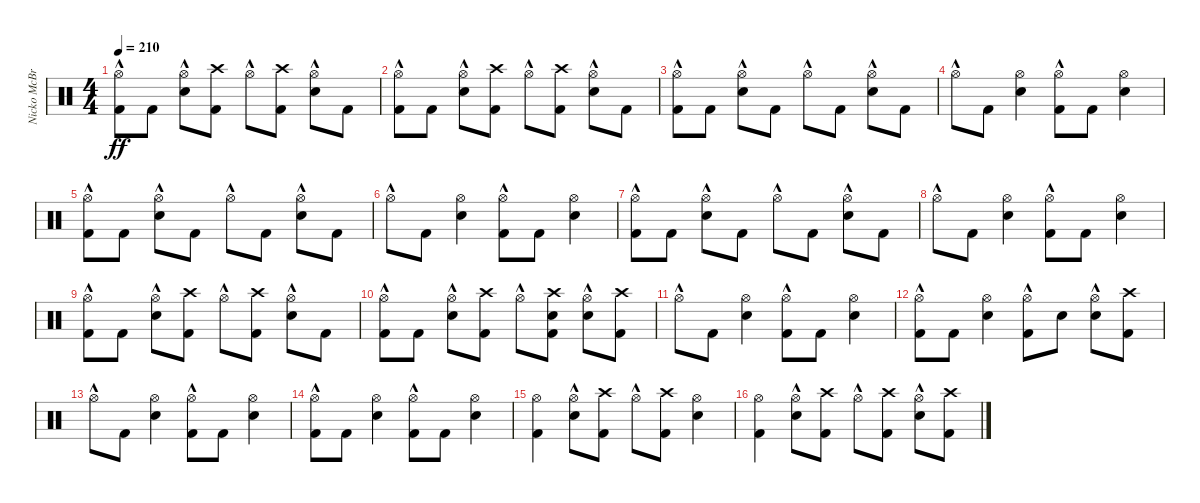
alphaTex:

\track ("Nicko McBrain" "Nicko McBr") {instrument percussion}
\staff {score}
\articulation defaults
\ts (4 4)
\tempo 210
\clef neutral
\ks c
("Kick (hit) 2" "Hi-Hat (open)"{hac}).8{dy ff} "Kick (hit) 2".8 ("Snare (hit) 2" "Hi-Hat (open)"{hac}).8 ("Kick (hit) 2" "Crash high (hit)").8 "Hi-Hat (open)"{hac}.8 ("Kick (hit) 2" "Crash high (hit)").8 ("Snare (hit) 2" "Hi-Hat (open)"{hac}).8 "Kick (hit) 2".8 |
("Kick (hit) 2" "Hi-Hat (open)"{hac}).8 "Kick (hit) 2".8 ("Snare (hit) 2" "Hi-Hat (open)"{hac}).8 ("Kick (hit) 2" "Crash high (hit)").8 "Hi-Hat (open)"{hac}.8 ("Kick (hit) 2" "Crash high (hit)").8 ("Snare (hit) 2" "Hi-Hat (open)"{hac}).8 "Kick (hit) 2".8 |
("Kick (hit) 2" "Hi-Hat (open)"{hac}).8 "Kick (hit) 2".8 ("Snare (hit) 2" "Hi-Hat (open)"{hac}).8 "Kick (hit) 2".8 "Hi-Hat (open)"{hac}.8 "Kick (hit) 2".8 ("Snare (hit) 2" "Hi-Hat (open)"{hac}).8 "Kick (hit) 2".8 |
"Hi-Hat (open)"{hac}.8 "Kick (hit) 2".8 ("Snare (hit) 2" "Hi-Hat (open)").4 ("Kick (hit) 2" "Hi-Hat (open)"{hac}).8 "Kick (hit) 2".8 ("Snare (hit) 2" "Hi-Hat (open)").4 |
("Kick (hit) 2" "Hi-Hat (open)"{hac}).8 "Kick (hit) 2".8 ("Snare (hit) 2" "Hi-Hat (open)"{hac}).8 "Kick (hit) 2".8 "Hi-Hat (open)"{hac}.8 "Kick (hit) 2".8 ("Snare (hit) 2" "Hi-Hat (open)"{hac}).8 "Kick (hit) 2".8 |
"Hi-Hat (open)"{hac}.8 "Kick (hit) 2".8 ("Snare (hit) 2" "Hi-Hat (open)").4 ("Kick (hit) 2" "Hi-Hat (open)"{hac}).8 "Kick (hit) 2".8 ("Snare (hit) 2" "Hi-Hat (open)").4 |
("Kick (hit) 2" "Hi-Hat (open)"{hac}).8 "Kick (hit) 2".8 ("Snare (hit) 2" "Hi-Hat (open)"{hac}).8 "Kick (hit) 2".8 "Hi-Hat (open)"{hac}.8 "Kick (hit) 2".8 ("Snare (hit) 2" "Hi-Hat (open)"{hac}).8 "Kick (hit) 2".8 |
"Hi-Hat (open)"{hac}.8 "Kick (hit) 2".8 ("Snare (hit) 2" "Hi-Hat (open)").4 ("Kick (hit) 2" "Hi-Hat (open)"{hac}).8 "Kick (hit) 2".8 ("Snare (hit) 2" "Hi-Hat (open)").4 |
("Kick (hit) 2" "Hi-Hat (open)"{hac}).8 "Kick (hit) 2".8 ("Snare (hit) 2" "Hi-Hat (open)"{hac}).8 ("Kick (hit) 2" "Crash high (hit)").8 "Hi-Hat (open)"{hac}.8 ("Kick (hit) 2" "Crash high (hit)").8 ("Snare (hit) 2" "Hi-Hat (open)"{hac}).8 "Kick (hit) 2".8 |
("Kick (hit) 2" "Hi-Hat (open)"{hac}).8 "Kick (hit) 2".8 ("Snare (hit) 2" "Hi-Hat (open)"{hac}).8 ("Kick (hit) 2" "Crash high (hit)").8 "Hi-Hat (open)"{hac}.8 ("Kick (hit) 2" "Snare (hit) 2" "Crash high (hit)").8 ("Snare (hit) 2" "Hi-Hat (open)"{hac}).8 ("Kick (hit) 2" "Crash high (hit)").8 |
"Hi-Hat (open)"{hac}.8 "Kick (hit) 2".8 ("Snare (hit) 2" "Hi-Hat (open)").4 ("Kick (hit) 2" "Hi-Hat (open)"{hac}).8 "Kick (hit) 2".8 ("Snare (hit) 2" "Hi-Hat (open)").4 |
("Kick (hit) 2" "Hi-Hat (open)"{hac}).8 "Kick (hit) 2".8 ("Snare (hit) 2" "Hi-Hat (open)").4 ("Kick (hit) 2" "Hi-Hat (open)"{hac}).8 "Snare (hit) 2".8 ("Snare (hit) 2" "Hi-Hat (open)"{hac}).8 ("Kick (hit) 2" "Crash high (hit)").8 |
"Hi-Hat (open)"{hac}.8 "Kick (hit) 2".8 ("Snare (hit) 2" "Hi-Hat (open)").4 ("Kick (hit) 2" "Hi-Hat (open)"{hac}).8 "Kick (hit) 2".8 ("Snare (hit) 2" "Hi-Hat (open)").4 |
("Kick (hit) 2" "Hi-Hat (open)"{hac}).8 "Kick (hit) 2".8 ("Snare (hit) 2" "Hi-Hat (open)").4 ("Kick (hit) 2" "Hi-Hat (open)"{hac}).8 "Kick (hit) 2".8 ("Snare (hit) 2" "Hi-Hat (open)").4 |
("Kick (hit) 2" "Hi-Hat (open)").4 ("Snare (hit) 2" "Hi-Hat (open)"{hac}).8 ("Kick (hit) 2" "Crash high (hit)").8 "Hi-Hat (open)"{hac}.8 ("Kick (hit) 2" "Crash high (hit)").8 ("Snare (hit) 2" "Hi-Hat (open)").4 |
("Kick (hit) 2" "Hi-Hat (open)").4 ("Snare (hit) 2" "Hi-Hat (open)"{hac}).8 ("Kick (hit) 2" "Crash high (hit)").8 "Hi-Hat (open)"{hac}.8 ("Kick (hit) 2" "Crash high (hit)").8 ("Snare (hit) 2" "Hi-Hat (open)"{hac}).8 ("Kick (hit) 2" "Crash high (hit)").8
